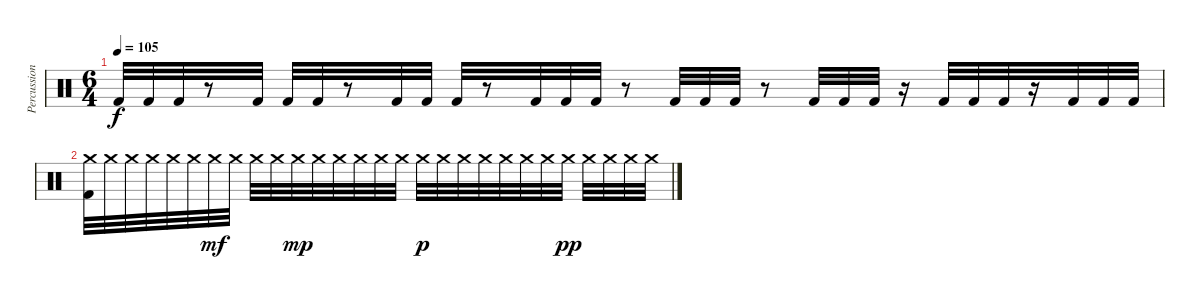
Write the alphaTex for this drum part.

\track ("Percussion" "Percussion") {instrument percussion}
\staff {score}
\articulation defaults
\ts (6 4)
\tempo 105
\clef neutral
\ks c "Kick (hit) 2".32{dy f} "Kick (hit) 2".32 "Kick (hit) 2".32
r.8 "Kick (hit) 2".32 "Kick (hit) 2".32 "Kick (hit) 2".32 r.8 "Kick (hit) 2".32 "Kick (hit) 2".32 "Kick (hit) 2".32 r.8 "Kick (hit) 2".32 "Kick (hit) 2".32 "Kick (hit) 2".32 r.8 "Kick (hit) 2".32 "Kick (hit) 2".32 "Kick (hit) 2".32 r.8 "Kick (hit) 2".32 "Kick (hit) 2".32 "Kick (hit) 2".32 r.16 "Kick (hit) 2".32 "Kick (hit) 2".32 "Kick (hit) 2".32 r.16 "Kick (hit) 2".32 "Kick (hit) 2".32 "Kick (hit) 2".32 |
("Crash medium (hit)" "Kick (hit) 2").32 "Crash medium (hit)".32 "Crash medium (hit)".32 "Crash medium (hit)".32 "Crash medium (hit)".32 "Crash medium (hit)".32 "Crash medium (hit)".32{dy mf} "Crash medium (hit)".32 "Crash medium (hit)".32 "Crash medium (hit)".32 "Crash medium (hit)".32{dy mp} "Crash medium (hit)".32 "Crash medium (hit)".32 "Crash medium (hit)".32 "Crash medium (hit)".32 "Crash medium (hit)".32 "Crash medium (hit)".32{dy p} "Crash medium (hit)".32 "Crash medium (hit)".32 "Crash medium (hit)".32 "Crash medium (hit)".32 "Crash medium (hit)".32 "Crash medium (hit)".32 "Crash medium (hit)".32{dy pp} "Crash medium (hit)".32 "Crash medium (hit)".32 "Crash medium (hit)".32 "Crash medium (hit)".32
